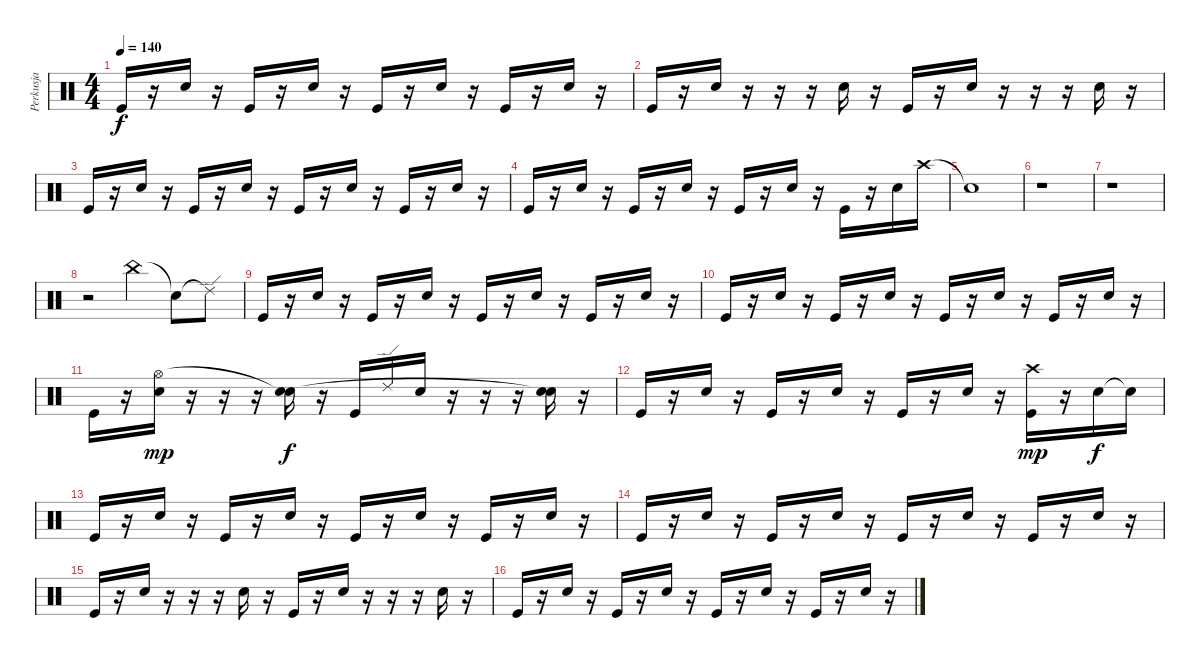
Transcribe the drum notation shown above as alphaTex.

\track ("Perkusja" "Perkusja") {instrument percussion}
\staff {score}
\articulation defaults
\ts (4 4)
\tempo 140
\clef neutral
\ks c "Kick (hit)".16{dy f}
r.16 "Snare (hit) 2".16 r.16 "Kick (hit)".16 r.16 "Snare (hit) 2".16 r.16 "Kick (hit)".16 r.16 "Snare (hit) 2".16 r.16 "Kick (hit)".16 r.16 "Snare (hit) 2".16 r.16 |
"Kick (hit)".16 r.16 "Snare (hit) 2".16 r.16 r.16 r.16 "Snare (hit) 2".16 r.16 "Kick (hit)".16 r.16 "Snare (hit) 2".16 r.16 r.16 r.16 "Snare (hit) 2".16 r.16 |
"Kick (hit)".16 r.16 "Snare (hit) 2".16 r.16 "Kick (hit)".16 r.16 "Snare (hit) 2".16 r.16 "Kick (hit)".16 r.16 "Snare (hit) 2".16 r.16 "Kick (hit)".16 r.16 "Snare (hit) 2".16 r.16 |
"Kick (hit)".16 r.16 "Snare (hit) 2".16 r.16 "Kick (hit)".16 r.16 "Snare (hit) 2".16 r.16 "Kick (hit)".16 r.16 "Snare (hit) 2".16 r.16 "Kick (hit)".16 r.16 "Snare (hit) 2".16 "Crash high (hit)".16 |
"Snare (hit)"{t}.1 |
r.1 |
r.1 |
r.2 "China (hit)".4 "Snare (hit)"{t}.8 "Ride (edge) 2"{t}.8 |
"Kick (hit)".16 r.16 "Snare (hit) 2".16 r.16 "Kick (hit)".16 r.16 "Snare (hit) 2".16 r.16 "Kick (hit)".16 r.16 "Snare (hit) 2".16 r.16 "Kick (hit)".16 r.16 "Snare (hit) 2".16 r.16 |
"Kick (hit)".16 r.16 "Snare (hit) 2".16 r.16 "Kick (hit)".16 r.16 "Snare (hit) 2".16 r.16 "Kick (hit)".16 r.16 "Snare (hit) 2".16 r.16 "Kick (hit)".16 r.16 "Snare (hit) 2".16 r.16 |
"Kick (hit)".16 r.16 ("Snare (hit) 2" "Hi-Hat (open)").16{dy mp} r.16 r.16 r.16 ("Snare (hit) 2" "Snare (hit)"{t}).16{dy f} r.16 "Kick (hit)".16 "Ride (edge) 2".16 "Snare (hit) 2".16 r.16 r.16 r.16 ("Snare (hit) 2" "Snare (hit)"{t}).16 r.16 |
"Kick (hit)".16 r.16 "Snare (hit) 2".16 r.16 "Kick (hit)".16 r.16 "Snare (hit) 2".16 r.16 "Kick (hit)".16 r.16 "Snare (hit) 2".16 r.16 ("Kick (hit)" "Crash high (hit)").16{dy mp} r.16 "Snare (hit) 2".16{dy f} "Snare (hit)"{t}.16 |
"Kick (hit)".16 r.16 "Snare (hit) 2".16 r.16 "Kick (hit)".16 r.16 "Snare (hit) 2".16 r.16 "Kick (hit)".16 r.16 "Snare (hit) 2".16 r.16 "Kick (hit)".16 r.16 "Snare (hit) 2".16 r.16 |
"Kick (hit)".16 r.16 "Snare (hit) 2".16 r.16 "Kick (hit)".16 r.16 "Snare (hit) 2".16 r.16 "Kick (hit)".16 r.16 "Snare (hit) 2".16 r.16 "Kick (hit)".16 r.16 "Snare (hit) 2".16 r.16 |
"Kick (hit)".16 r.16 "Snare (hit) 2".16 r.16 r.16 r.16 "Snare (hit) 2".16 r.16 "Kick (hit)".16 r.16 "Snare (hit) 2".16 r.16 r.16 r.16 "Snare (hit) 2".16 r.16 |
"Kick (hit)".16 r.16 "Snare (hit) 2".16 r.16 "Kick (hit)".16 r.16 "Snare (hit) 2".16 r.16 "Kick (hit)".16 r.16 "Snare (hit) 2".16 r.16 "Kick (hit)".16 r.16 "Snare (hit) 2".16 r.16
